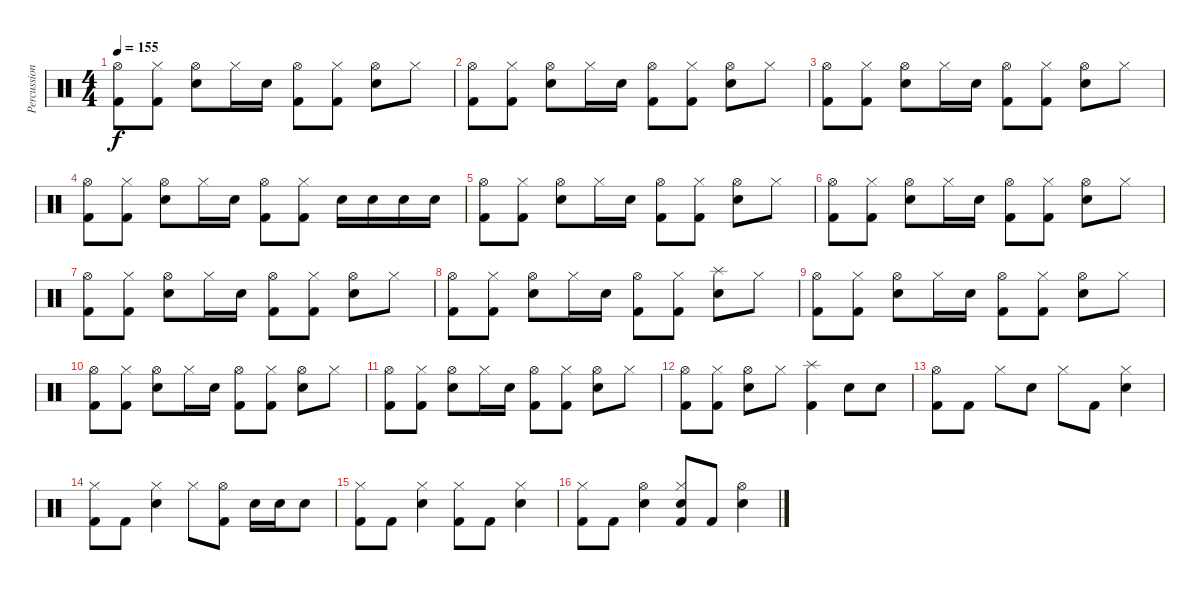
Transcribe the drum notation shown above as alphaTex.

\track ("Percussion" "Percussion") {instrument percussion}
\staff {score}
\articulation defaults
\ts (4 4)
\tempo 155
\clef neutral
\ks c
("Hi-Hat (open)" "Kick (hit) 2").8{dy f} ("Hi-Hat (closed)" "Kick (hit) 2").8 ("Hi-Hat (open)" "Snare (hit) 2").8 "Hi-Hat (closed)".16 "Snare (hit) 2".16 ("Hi-Hat (open)" "Kick (hit) 2").8 ("Hi-Hat (closed)" "Kick (hit) 2").8 ("Hi-Hat (open)" "Snare (hit) 2").8 "Hi-Hat (closed)".8 |
("Hi-Hat (open)" "Kick (hit) 2").8 ("Hi-Hat (closed)" "Kick (hit) 2").8 ("Hi-Hat (open)" "Snare (hit) 2").8 "Hi-Hat (closed)".16 "Snare (hit) 2".16 ("Hi-Hat (open)" "Kick (hit) 2").8 ("Hi-Hat (closed)" "Kick (hit) 2").8 ("Hi-Hat (open)" "Snare (hit) 2").8 "Hi-Hat (closed)".8 |
("Hi-Hat (open)" "Kick (hit) 2").8 ("Hi-Hat (closed)" "Kick (hit) 2").8 ("Hi-Hat (open)" "Snare (hit) 2").8 "Hi-Hat (closed)".16 "Snare (hit) 2".16 ("Hi-Hat (open)" "Kick (hit) 2").8 ("Hi-Hat (closed)" "Kick (hit) 2").8 ("Hi-Hat (open)" "Snare (hit) 2").8 "Hi-Hat (closed)".8 |
("Hi-Hat (open)" "Kick (hit) 2").8 ("Hi-Hat (closed)" "Kick (hit) 2").8 ("Hi-Hat (open)" "Snare (hit) 2").8 "Hi-Hat (closed)".16 "Snare (hit) 2".16 ("Hi-Hat (open)" "Kick (hit) 2").8 ("Hi-Hat (closed)" "Kick (hit) 2").8 "Snare (hit) 2".16 "Snare (hit) 2".16 "Snare (hit) 2".16 "Snare (hit) 2".16 |
("Hi-Hat (open)" "Kick (hit) 2").8 ("Hi-Hat (closed)" "Kick (hit) 2").8 ("Hi-Hat (open)" "Snare (hit) 2").8 "Hi-Hat (closed)".16 "Snare (hit) 2".16 ("Hi-Hat (open)" "Kick (hit) 2").8 ("Hi-Hat (closed)" "Kick (hit) 2").8 ("Hi-Hat (open)" "Snare (hit) 2").8 "Hi-Hat (closed)".8 |
("Hi-Hat (open)" "Kick (hit) 2").8 ("Hi-Hat (closed)" "Kick (hit) 2").8 ("Hi-Hat (open)" "Snare (hit) 2").8 "Hi-Hat (closed)".16 "Snare (hit) 2".16 ("Hi-Hat (open)" "Kick (hit) 2").8 ("Hi-Hat (closed)" "Kick (hit) 2").8 ("Hi-Hat (open)" "Snare (hit) 2").8 "Hi-Hat (closed)".8 |
("Hi-Hat (open)" "Kick (hit) 2").8 ("Hi-Hat (closed)" "Kick (hit) 2").8 ("Hi-Hat (open)" "Snare (hit) 2").8 "Hi-Hat (closed)".16 "Snare (hit) 2".16 ("Hi-Hat (open)" "Kick (hit) 2").8 ("Hi-Hat (closed)" "Kick (hit) 2").8 ("Hi-Hat (open)" "Snare (hit) 2").8 "Hi-Hat (closed)".8 |
("Hi-Hat (open)" "Kick (hit) 2").8 ("Hi-Hat (closed)" "Kick (hit) 2").8 ("Hi-Hat (open)" "Snare (hit) 2").8 "Hi-Hat (closed)".16 "Snare (hit) 2".16 ("Hi-Hat (open)" "Kick (hit) 2").8 ("Hi-Hat (closed)" "Kick (hit) 2").8 ("Splash (hit)" "Snare (hit) 2").8 "Hi-Hat (closed)".8 |
("Hi-Hat (open)" "Kick (hit) 2").8 ("Hi-Hat (closed)" "Kick (hit) 2").8 ("Hi-Hat (open)" "Snare (hit) 2").8 "Hi-Hat (closed)".16 "Snare (hit) 2".16 ("Hi-Hat (open)" "Kick (hit) 2").8 ("Hi-Hat (closed)" "Kick (hit) 2").8 ("Hi-Hat (open)" "Snare (hit) 2").8 "Hi-Hat (closed)".8 |
("Hi-Hat (open)" "Kick (hit) 2").8 ("Hi-Hat (closed)" "Kick (hit) 2").8 ("Hi-Hat (open)" "Snare (hit) 2").8 "Hi-Hat (closed)".16 "Snare (hit) 2".16 ("Hi-Hat (open)" "Kick (hit) 2").8 ("Hi-Hat (closed)" "Kick (hit) 2").8 ("Hi-Hat (open)" "Snare (hit) 2").8 "Hi-Hat (closed)".8 |
("Hi-Hat (open)" "Kick (hit) 2").8 ("Hi-Hat (closed)" "Kick (hit) 2").8 ("Hi-Hat (open)" "Snare (hit) 2").8 "Hi-Hat (closed)".16 "Snare (hit) 2".16 ("Hi-Hat (open)" "Kick (hit) 2").8 ("Hi-Hat (closed)" "Kick (hit) 2").8 ("Hi-Hat (open)" "Snare (hit) 2").8 "Hi-Hat (closed)".8 |
("Hi-Hat (open)" "Kick (hit) 2").8 ("Hi-Hat (closed)" "Kick (hit) 2").8 ("Hi-Hat (open)" "Snare (hit) 2").8 "Hi-Hat (closed)".8 ("Splash (hit)" "Kick (hit) 2").4 "Snare (hit) 2".8 "Snare (hit) 2".8 |
("Hi-Hat (open)" "Kick (hit) 2").8 "Kick (hit) 2".8 "Hi-Hat (closed)".8 "Snare (hit) 2".8 "Hi-Hat (closed)".8 "Kick (hit) 2".8 ("Hi-Hat (closed)" "Snare (hit) 2").4 |
("Hi-Hat (closed)" "Kick (hit) 2").8 "Kick (hit) 2".8 ("Hi-Hat (closed)" "Snare (hit) 2").4 "Hi-Hat (closed)".8 ("Hi-Hat (open)" "Kick (hit) 2").8 "Snare (hit) 2".16 "Snare (hit) 2".16 "Snare (hit) 2".8 |
("Hi-Hat (closed)" "Kick (hit) 2").8 "Kick (hit) 2".8 ("Hi-Hat (closed)" "Snare (hit) 2").4 ("Hi-Hat (closed)" "Kick (hit) 2").8 "Kick (hit) 2".8 ("Hi-Hat (closed)" "Snare (hit) 2").4 |
("Hi-Hat (closed)" "Kick (hit) 2").8 "Kick (hit) 2".8 ("Hi-Hat (open)" "Snare (hit) 2").4 ("Hi-Hat (closed)" "Snare (hit) 2" "Kick (hit) 2").8 "Kick (hit) 2".8 ("Hi-Hat (open)" "Snare (hit) 2").4
